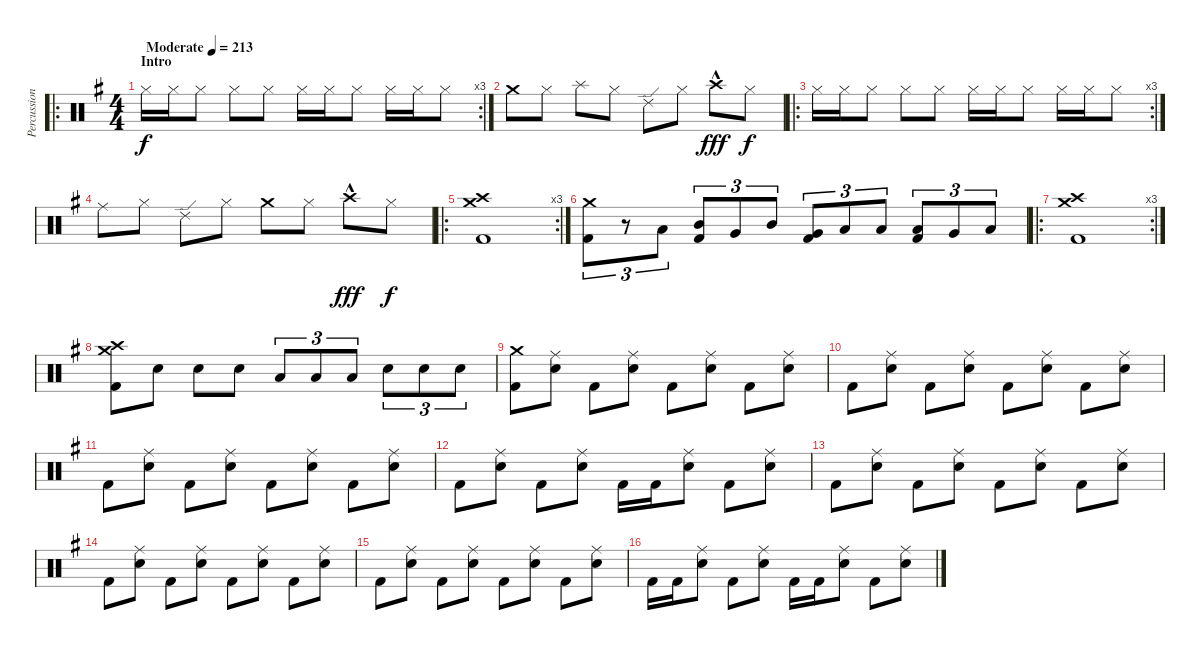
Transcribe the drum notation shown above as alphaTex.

\track ("Percussion" "Percussion") {instrument percussion}
\staff {score}
\articulation defaults
\ro
\rc 3
\ts (4 4)
\section ("" "Intro")
\tempo (213 "Moderate")
\clef neutral
\ks eminor "Hi-Hat (closed)".16{dy f} "Hi-Hat (closed)".16 "Hi-Hat (closed)".8 "Hi-Hat (closed)".8 "Hi-Hat (closed)".8 "Hi-Hat (closed)".16 "Hi-Hat (closed)".16 "Hi-Hat (closed)".8 "Hi-Hat (closed)".16 "Hi-Hat (closed)".16 "Hi-Hat (closed)".8
|
"Crash medium (hit)".8 "Hi-Hat (closed)".8 "Splash (hit)".8 "Hi-Hat (closed)".8 "Ride (edge) 2".8 "Hi-Hat (closed)".8 "Crash high (hit)"{hac}.8{dy fff} "Hi-Hat (closed)".8{dy f} |
\ro
\rc 3 "Hi-Hat (closed)".16 "Hi-Hat (closed)".16 "Hi-Hat (closed)".8 "Hi-Hat (closed)".8 "Hi-Hat (closed)".8 "Hi-Hat (closed)".16 "Hi-Hat (closed)".16 "Hi-Hat (closed)".8 "Hi-Hat (closed)".16 "Hi-Hat (closed)".16 "Hi-Hat (closed)".8
|
"Ride (middle)".8 "Hi-Hat (closed)".8 "Ride (edge) 2".8 "Hi-Hat (closed)".8 "Crash medium (hit)".8 "Hi-Hat (closed)".8 "Crash high (hit)"{hac}.8{dy fff} "Hi-Hat (closed)".8{dy f} |
\ro
\rc 3
("Crash medium (hit)" "Crash high (hit)" "Kick (hit) 2").1 |
("Crash medium (hit)" "Kick (hit) 2").8{tu (3 2)} r.8{tu (3 2)} "Low Tom (hit)".8{tu (3 2)} ("Mid Tom (hit)" "Kick (hit) 2").8{tu (3 2)} "Very Low Tom (hit)".8{tu (3 2)} "Mid Tom (hit)".8{tu (3 2)} ("Very Low Tom (hit)" "Kick (hit) 2").8{tu (3 2)} "Low Floor Tom (hit)".8{tu (3 2)} "Low Floor Tom (hit)".8{tu (3 2)} ("Low Tom (hit)" "Kick (hit) 2").8{tu (3 2)} "Very Low Tom (hit)".8{tu (3 2)} "Low Floor Tom (hit)".8{tu (3 2)} |
\ro
\rc 3
("Crash medium (hit)" "Crash high (hit)" "Kick (hit) 2").1 |
("Crash medium (hit)" "Crash high (hit)" "Kick (hit) 2").8 "Snare (hit) 2".8 "Snare (hit) 2".8 "Snare (hit) 2".8 "Low Tom (hit)".8{tu (3 2)} "Low Tom (hit)".8{tu (3 2)} "Low Tom (hit)".8{tu (3 2)} "Snare (hit) 2".8{tu (3 2)} "Snare (hit) 2".8{tu (3 2)} "Snare (hit) 2".8{tu (3 2)} |
("Crash medium (hit)" "Kick (hit) 2").8 ("Ride (middle)" "Snare (hit) 2").8 "Kick (hit) 2".8 ("Ride (middle)" "Snare (hit) 2").8 "Kick (hit) 2".8 ("Ride (middle)" "Snare (hit) 2").8 "Kick (hit) 2".8 ("Ride (middle)" "Snare (hit) 2").8 |
"Kick (hit) 2".8 ("Ride (middle)" "Snare (hit) 2").8 "Kick (hit) 2".8 ("Ride (middle)" "Snare (hit) 2").8 "Kick (hit) 2".8 ("Ride (middle)" "Snare (hit) 2").8 "Kick (hit) 2".8 ("Ride (middle)" "Snare (hit) 2").8 |
"Kick (hit) 2".8 ("Ride (middle)" "Snare (hit) 2").8 "Kick (hit) 2".8 ("Ride (middle)" "Snare (hit) 2").8 "Kick (hit) 2".8 ("Ride (middle)" "Snare (hit) 2").8 "Kick (hit) 2".8 ("Ride (middle)" "Snare (hit) 2").8 |
"Kick (hit) 2".8 ("Ride (middle)" "Snare (hit) 2").8 "Kick (hit) 2".8 ("Ride (middle)" "Snare (hit) 2").8 "Kick (hit) 2".16 "Kick (hit) 2".16 ("Ride (middle)" "Snare (hit) 2").8 "Kick (hit) 2".8 ("Ride (middle)" "Snare (hit) 2").8 |
"Kick (hit) 2".8 ("Ride (middle)" "Snare (hit) 2").8 "Kick (hit) 2".8 ("Ride (middle)" "Snare (hit) 2").8 "Kick (hit) 2".8 ("Ride (middle)" "Snare (hit) 2").8 "Kick (hit) 2".8 ("Ride (middle)" "Snare (hit) 2").8 |
"Kick (hit) 2".8 ("Ride (middle)" "Snare (hit) 2").8 "Kick (hit) 2".8 ("Ride (middle)" "Snare (hit) 2").8 "Kick (hit) 2".8 ("Ride (middle)" "Snare (hit) 2").8 "Kick (hit) 2".8 ("Ride (middle)" "Snare (hit) 2").8 |
"Kick (hit) 2".8 ("Ride (middle)" "Snare (hit) 2").8 "Kick (hit) 2".8 ("Ride (middle)" "Snare (hit) 2").8 "Kick (hit) 2".8 ("Ride (middle)" "Snare (hit) 2").8 "Kick (hit) 2".8 ("Ride (middle)" "Snare (hit) 2").8 |
"Kick (hit) 2".16 "Kick (hit) 2".16 ("Ride (middle)" "Snare (hit) 2").8 "Kick (hit) 2".8 ("Ride (middle)" "Snare (hit) 2").8 "Kick (hit) 2".16 "Kick (hit) 2".16 ("Ride (middle)" "Snare (hit) 2").8 "Kick (hit) 2".8 ("Ride (middle)" "Snare (hit) 2").8
